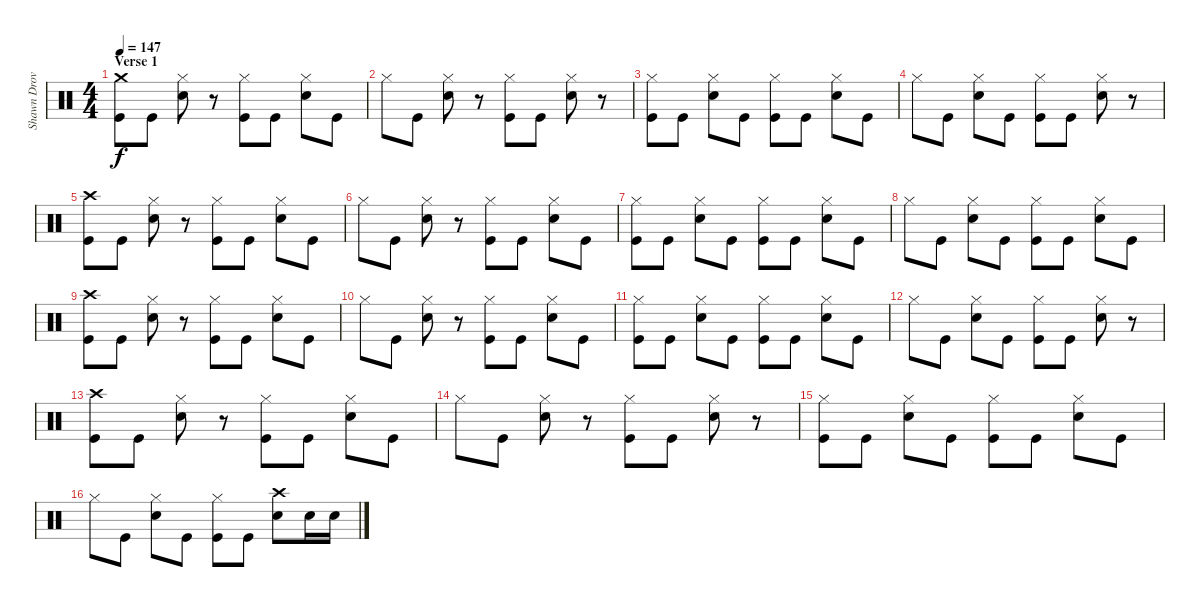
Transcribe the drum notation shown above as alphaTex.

\track ("Shawn Drover" "Shawn Drov") {instrument percussion}
\staff {score}
\articulation defaults
\ts (4 4)
\section ("" "Verse 1")
\tempo 147
\clef neutral
\ks c
("Crash medium (hit)" "Kick (hit)").8{dy f} "Kick (hit)".8 ("Hi-Hat (closed)" "Snare (hit) 2").8 r.8 ("Hi-Hat (closed)" "Kick (hit)").8 "Kick (hit)".8 ("Hi-Hat (closed)" "Snare (hit) 2").8 "Kick (hit)".8 |
"Hi-Hat (closed)".8 "Kick (hit)".8 ("Hi-Hat (closed)" "Snare (hit) 2").8 r.8 ("Hi-Hat (closed)" "Kick (hit)").8 "Kick (hit)".8 ("Hi-Hat (closed)" "Snare (hit) 2").8 r.8 |
("Hi-Hat (closed)" "Kick (hit)").8 "Kick (hit)".8 ("Hi-Hat (closed)" "Snare (hit) 2").8 "Kick (hit)".8 ("Hi-Hat (closed)" "Kick (hit)").8 "Kick (hit)".8 ("Hi-Hat (closed)" "Snare (hit) 2").8 "Kick (hit)".8 |
"Hi-Hat (closed)".8 "Kick (hit)".8 ("Hi-Hat (closed)" "Snare (hit) 2").8 "Kick (hit)".8 ("Hi-Hat (closed)" "Kick (hit)").8 "Kick (hit)".8 ("Hi-Hat (closed)" "Snare (hit) 2").8 r.8 |
("Crash high (hit)" "Kick (hit)").8 "Kick (hit)".8 ("Hi-Hat (closed)" "Snare (hit) 2").8 r.8 ("Hi-Hat (closed)" "Kick (hit)").8 "Kick (hit)".8 ("Hi-Hat (closed)" "Snare (hit) 2").8 "Kick (hit)".8 |
"Hi-Hat (closed)".8 "Kick (hit)".8 ("Hi-Hat (closed)" "Snare (hit) 2").8 r.8 ("Hi-Hat (closed)" "Kick (hit)").8 "Kick (hit)".8 ("Hi-Hat (closed)" "Snare (hit) 2").8 "Kick (hit)".8 |
("Hi-Hat (closed)" "Kick (hit)").8 "Kick (hit)".8 ("Hi-Hat (closed)" "Snare (hit) 2").8 "Kick (hit)".8 ("Hi-Hat (closed)" "Kick (hit)").8 "Kick (hit)".8 ("Hi-Hat (closed)" "Snare (hit) 2").8 "Kick (hit)".8 |
"Hi-Hat (closed)".8 "Kick (hit)".8 ("Hi-Hat (closed)" "Snare (hit) 2").8 "Kick (hit)".8 ("Hi-Hat (closed)" "Kick (hit)").8 "Kick (hit)".8 ("Hi-Hat (closed)" "Snare (hit) 2").8 "Kick (hit)".8 |
("Crash high (hit)" "Kick (hit)").8 "Kick (hit)".8 ("Hi-Hat (closed)" "Snare (hit) 2").8 r.8 ("Hi-Hat (closed)" "Kick (hit)").8 "Kick (hit)".8 ("Hi-Hat (closed)" "Snare (hit) 2").8 "Kick (hit)".8 |
"Hi-Hat (closed)".8 "Kick (hit)".8 ("Hi-Hat (closed)" "Snare (hit) 2").8 r.8 ("Hi-Hat (closed)" "Kick (hit)").8 "Kick (hit)".8 ("Hi-Hat (closed)" "Snare (hit) 2").8 "Kick (hit)".8 |
("Hi-Hat (closed)" "Kick (hit)").8 "Kick (hit)".8 ("Hi-Hat (closed)" "Snare (hit) 2").8 "Kick (hit)".8 ("Hi-Hat (closed)" "Kick (hit)").8 "Kick (hit)".8 ("Hi-Hat (closed)" "Snare (hit) 2").8 "Kick (hit)".8 |
"Hi-Hat (closed)".8 "Kick (hit)".8 ("Hi-Hat (closed)" "Snare (hit) 2").8 "Kick (hit)".8 ("Hi-Hat (closed)" "Kick (hit)").8 "Kick (hit)".8 ("Hi-Hat (closed)" "Snare (hit) 2").8 r.8 |
("Crash high (hit)" "Kick (hit)").8 "Kick (hit)".8 ("Hi-Hat (closed)" "Snare (hit) 2").8 r.8 ("Hi-Hat (closed)" "Kick (hit)").8 "Kick (hit)".8 ("Hi-Hat (closed)" "Snare (hit) 2").8 "Kick (hit)".8 |
"Hi-Hat (closed)".8 "Kick (hit)".8 ("Hi-Hat (closed)" "Snare (hit) 2").8 r.8 ("Hi-Hat (closed)" "Kick (hit)").8 "Kick (hit)".8 ("Hi-Hat (closed)" "Snare (hit) 2").8 r.8 |
("Hi-Hat (closed)" "Kick (hit)").8 "Kick (hit)".8 ("Hi-Hat (closed)" "Snare (hit) 2").8 "Kick (hit)".8 ("Hi-Hat (closed)" "Kick (hit)").8 "Kick (hit)".8 ("Hi-Hat (closed)" "Snare (hit) 2").8 "Kick (hit)".8 |
"Hi-Hat (closed)".8 "Kick (hit)".8 ("Hi-Hat (closed)" "Snare (hit) 2").8 "Kick (hit)".8 ("Hi-Hat (closed)" "Kick (hit)").8 "Kick (hit)".8 ("Crash high (hit)" "Snare (hit) 2").8 "Snare (hit) 2".16 "Snare (hit) 2".16
